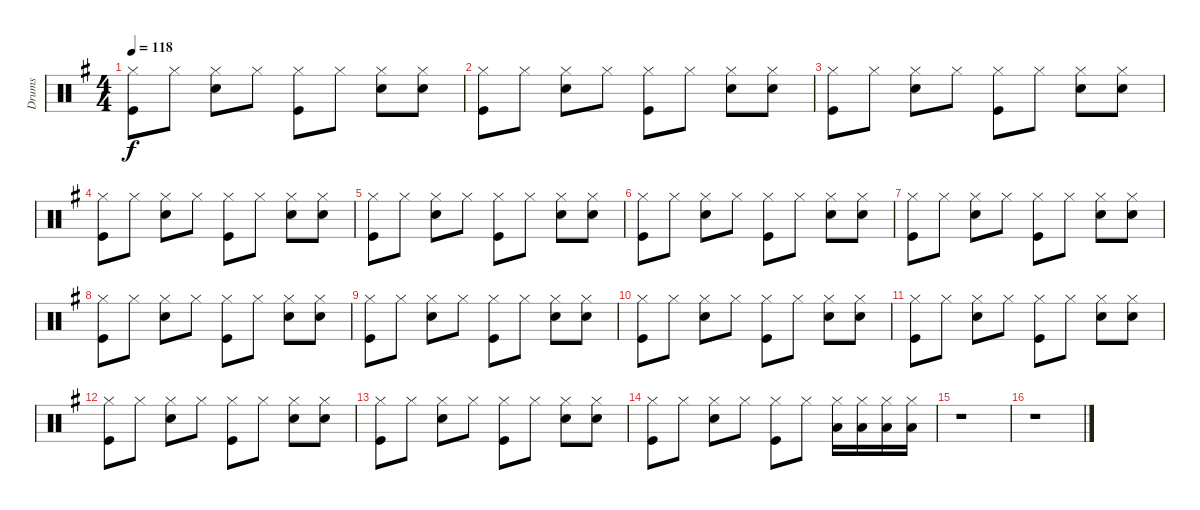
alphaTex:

\track ("Drums" "Drums") {instrument percussion}
\staff {score}
\articulation defaults
\ts (4 4)
\tempo 118
\clef neutral
\ks g
("Hi-Hat (closed)" "Kick (hit)").8{dy f} "Hi-Hat (closed)".8 ("Hi-Hat (closed)" "Snare (hit) 2").8 "Hi-Hat (closed)".8 ("Hi-Hat (closed)" "Kick (hit)").8 "Hi-Hat (closed)".8 ("Hi-Hat (closed)" "Snare (hit) 2").8 ("Hi-Hat (closed)" "Snare (hit) 2").8 |
("Hi-Hat (closed)" "Kick (hit)").8 "Hi-Hat (closed)".8 ("Hi-Hat (closed)" "Snare (hit) 2").8 "Hi-Hat (closed)".8 ("Hi-Hat (closed)" "Kick (hit)").8 "Hi-Hat (closed)".8 ("Hi-Hat (closed)" "Snare (hit) 2").8 ("Hi-Hat (closed)" "Snare (hit) 2").8 |
("Hi-Hat (closed)" "Kick (hit)").8 "Hi-Hat (closed)".8 ("Hi-Hat (closed)" "Snare (hit) 2").8 "Hi-Hat (closed)".8 ("Hi-Hat (closed)" "Kick (hit)").8 "Hi-Hat (closed)".8 ("Hi-Hat (closed)" "Snare (hit) 2").8 ("Hi-Hat (closed)" "Snare (hit) 2").8 |
("Hi-Hat (closed)" "Kick (hit)").8 "Hi-Hat (closed)".8 ("Hi-Hat (closed)" "Snare (hit) 2").8 "Hi-Hat (closed)".8 ("Hi-Hat (closed)" "Kick (hit)").8 "Hi-Hat (closed)".8 ("Hi-Hat (closed)" "Snare (hit) 2").8 ("Hi-Hat (closed)" "Snare (hit) 2").8 |
("Hi-Hat (closed)" "Kick (hit)").8 "Hi-Hat (closed)".8 ("Hi-Hat (closed)" "Snare (hit) 2").8 "Hi-Hat (closed)".8 ("Hi-Hat (closed)" "Kick (hit)").8 "Hi-Hat (closed)".8 ("Hi-Hat (closed)" "Snare (hit) 2").8 ("Hi-Hat (closed)" "Snare (hit) 2").8 |
("Hi-Hat (closed)" "Kick (hit)").8 "Hi-Hat (closed)".8 ("Hi-Hat (closed)" "Snare (hit) 2").8 "Hi-Hat (closed)".8 ("Hi-Hat (closed)" "Kick (hit)").8 "Hi-Hat (closed)".8 ("Hi-Hat (closed)" "Snare (hit) 2").8 ("Hi-Hat (closed)" "Snare (hit) 2").8 |
("Hi-Hat (closed)" "Kick (hit)").8 "Hi-Hat (closed)".8 ("Hi-Hat (closed)" "Snare (hit) 2").8 "Hi-Hat (closed)".8 ("Hi-Hat (closed)" "Kick (hit)").8 "Hi-Hat (closed)".8 ("Hi-Hat (closed)" "Snare (hit) 2").8 ("Hi-Hat (closed)" "Snare (hit) 2").8 |
("Hi-Hat (closed)" "Kick (hit)").8 "Hi-Hat (closed)".8 ("Hi-Hat (closed)" "Snare (hit) 2").8 "Hi-Hat (closed)".8 ("Hi-Hat (closed)" "Kick (hit)").8 "Hi-Hat (closed)".8 ("Hi-Hat (closed)" "Snare (hit) 2").8 ("Hi-Hat (closed)" "Snare (hit) 2").8 |
("Hi-Hat (closed)" "Kick (hit)").8 "Hi-Hat (closed)".8 ("Hi-Hat (closed)" "Snare (hit) 2").8 "Hi-Hat (closed)".8 ("Hi-Hat (closed)" "Kick (hit)").8 "Hi-Hat (closed)".8 ("Hi-Hat (closed)" "Snare (hit) 2").8 ("Hi-Hat (closed)" "Snare (hit) 2").8 |
("Hi-Hat (closed)" "Kick (hit)").8 "Hi-Hat (closed)".8 ("Hi-Hat (closed)" "Snare (hit) 2").8 "Hi-Hat (closed)".8 ("Hi-Hat (closed)" "Kick (hit)").8 "Hi-Hat (closed)".8 ("Hi-Hat (closed)" "Snare (hit) 2").8 ("Hi-Hat (closed)" "Snare (hit) 2").8 |
("Hi-Hat (closed)" "Kick (hit)").8 "Hi-Hat (closed)".8 ("Hi-Hat (closed)" "Snare (hit) 2").8 "Hi-Hat (closed)".8 ("Hi-Hat (closed)" "Kick (hit)").8 "Hi-Hat (closed)".8 ("Hi-Hat (closed)" "Snare (hit) 2").8 ("Hi-Hat (closed)" "Snare (hit) 2").8 |
("Hi-Hat (closed)" "Kick (hit)").8 "Hi-Hat (closed)".8 ("Hi-Hat (closed)" "Snare (hit) 2").8 "Hi-Hat (closed)".8 ("Hi-Hat (closed)" "Kick (hit)").8 "Hi-Hat (closed)".8 ("Hi-Hat (closed)" "Snare (hit) 2").8 ("Hi-Hat (closed)" "Snare (hit) 2").8 |
("Hi-Hat (closed)" "Kick (hit)").8 "Hi-Hat (closed)".8 ("Hi-Hat (closed)" "Snare (hit) 2").8 "Hi-Hat (closed)".8 ("Hi-Hat (closed)" "Kick (hit)").8 "Hi-Hat (closed)".8 ("Hi-Hat (closed)" "Snare (hit) 2").8 ("Hi-Hat (closed)" "Snare (hit) 2").8 |
("Hi-Hat (closed)" "Kick (hit)").8 "Hi-Hat (closed)".8 ("Hi-Hat (closed)" "Snare (hit) 2").8 "Hi-Hat (closed)".8 ("Hi-Hat (closed)" "Kick (hit)").8 "Hi-Hat (closed)".8 ("Hi-Hat (closed)" "Low Floor Tom (hit)").16 ("Hi-Hat (closed)" "Low Floor Tom (hit)").16 ("Hi-Hat (closed)" "Low Tom (hit)").16 ("Hi-Hat (closed)" "Low Tom (hit)").16 |
r.1 |
r.1
